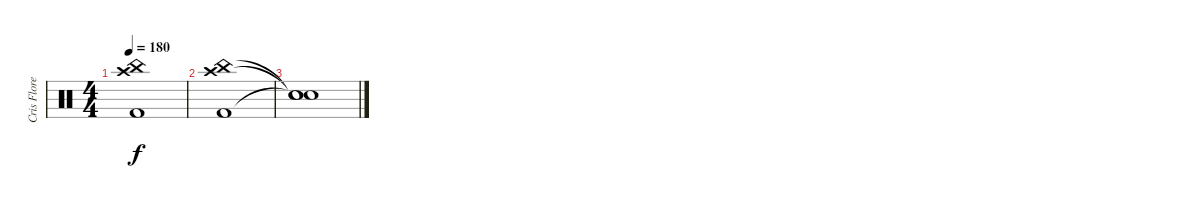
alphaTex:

\track ("Cris Flores" "Cris Flore") {instrument percussion}
\staff {score}
\articulation defaults
\ts (4 4)
\tempo 180
\clef neutral
\ks c
("China (hit)" "Kick (hit) 2" "Crash high (hit)").1{dy f} |
("China (hit)" "Kick (hit) 2" "Crash high (hit)").1 |
("Snare (hit)"{t} "Snare (hit)"{t} "Snare (hit)"{t}).1
